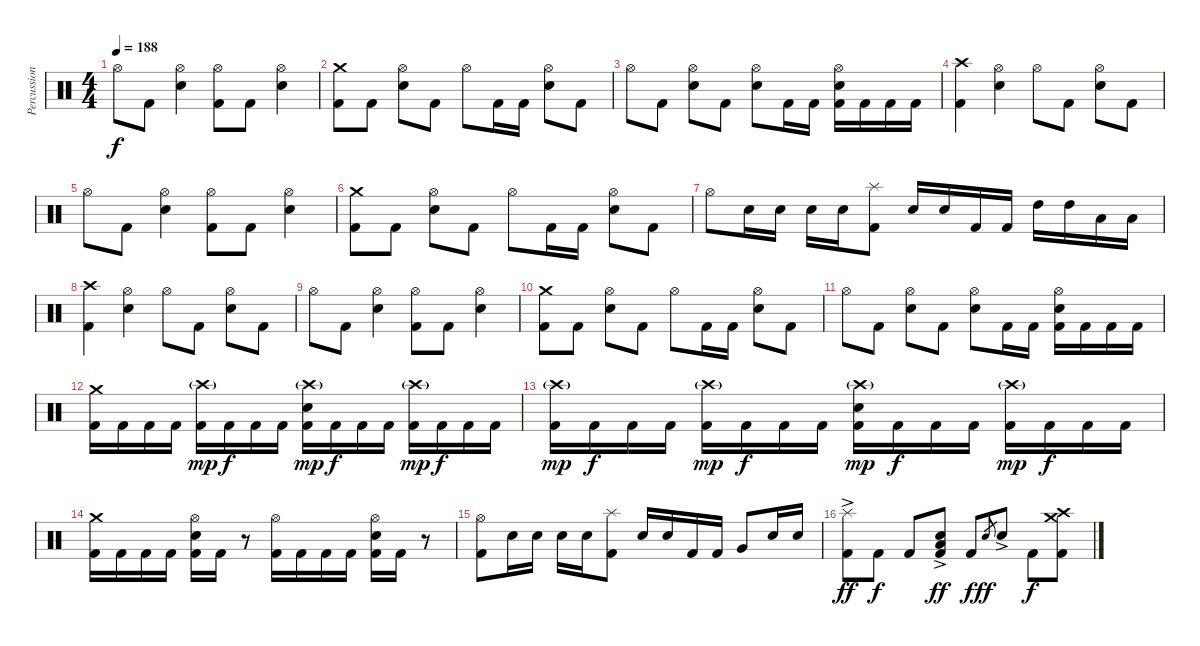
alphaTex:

\track ("Percussion" "Percussion") {instrument percussion}
\staff {score}
\articulation defaults
\ts (4 4)
\tempo 188
\clef neutral
\ks c "Hi-Hat (open)".8{dy f} "Kick (hit) 2".8
("Hi-Hat (open)" "Electric Snare (hit)").4 ("Hi-Hat (open)" "Kick (hit) 2").8 "Kick (hit) 2".8 ("Hi-Hat (open)" "Electric Snare (hit)").4 |
("Crash medium (hit)" "Kick (hit) 2").8 "Kick (hit) 2".8 ("Hi-Hat (open)" "Electric Snare (hit)").8 "Kick (hit) 2".8 "Hi-Hat (open)".8 "Kick (hit) 2".16 "Kick (hit) 2".16 ("Hi-Hat (open)" "Electric Snare (hit)").8 "Kick (hit) 2".8 |
"Hi-Hat (open)".8 "Kick (hit) 2".8 ("Hi-Hat (open)" "Electric Snare (hit)").8 "Kick (hit) 2".8 ("Hi-Hat (open)" "Electric Snare (hit)").8 "Kick (hit) 2".16 "Kick (hit) 2".16 ("Hi-Hat (open)" "Electric Snare (hit)" "Kick (hit) 2").16 "Kick (hit) 2".16 "Kick (hit) 2".16 "Kick (hit) 2".16 |
("Crash high (hit)" "Kick (hit) 2").4 ("Hi-Hat (open)" "Electric Snare (hit)").4 "Hi-Hat (open)".8 "Kick (hit) 2".8 ("Hi-Hat (open)" "Electric Snare (hit)").8 "Kick (hit) 2".8 |
"Hi-Hat (open)".8 "Kick (hit) 2".8 ("Hi-Hat (open)" "Electric Snare (hit)").4 ("Hi-Hat (open)" "Kick (hit) 2").8 "Kick (hit) 2".8 ("Hi-Hat (open)" "Electric Snare (hit)").4 |
("Crash medium (hit)" "Kick (hit) 2").8 "Kick (hit) 2".8 ("Hi-Hat (open)" "Electric Snare (hit)").8 "Kick (hit) 2".8 "Hi-Hat (open)".8 "Kick (hit) 2".16 "Kick (hit) 2".16 ("Hi-Hat (open)" "Electric Snare (hit)").8 "Kick (hit) 2".8 |
"Hi-Hat (open)".8 "Electric Snare (hit)".16 "Electric Snare (hit)".16 "Electric Snare (hit)".16 "Electric Snare (hit)".16 ("Splash (hit)" "Kick (hit) 2").8 "Electric Snare (hit)".16 "Electric Snare (hit)".16 "Kick (hit) 2".16 "Kick (hit) 2".16 "High Tom (hit)".16 "High Tom (hit)".16 "Low Tom (hit)".16 "Low Tom (hit)".16 |
("Crash high (hit)" "Kick (hit) 2").4 ("Hi-Hat (open)" "Electric Snare (hit)").4 "Hi-Hat (open)".8 "Kick (hit) 2".8 ("Hi-Hat (open)" "Electric Snare (hit)").8 "Kick (hit) 2".8 |
"Hi-Hat (open)".8 "Kick (hit) 2".8 ("Hi-Hat (open)" "Electric Snare (hit)").4 ("Hi-Hat (open)" "Kick (hit) 2").8 "Kick (hit) 2".8 ("Hi-Hat (open)" "Electric Snare (hit)").4 |
("Crash medium (hit)" "Kick (hit) 2").8 "Kick (hit) 2".8 ("Hi-Hat (open)" "Electric Snare (hit)").8 "Kick (hit) 2".8 "Hi-Hat (open)".8 "Kick (hit) 2".16 "Kick (hit) 2".16 ("Hi-Hat (open)" "Electric Snare (hit)").8 "Kick (hit) 2".8 |
"Hi-Hat (open)".8 "Kick (hit) 2".8 ("Hi-Hat (open)" "Electric Snare (hit)").8 "Kick (hit) 2".8 ("Hi-Hat (open)" "Electric Snare (hit)").8 "Kick (hit) 2".16 "Kick (hit) 2".16 ("Hi-Hat (open)" "Electric Snare (hit)" "Kick (hit) 2").16 "Kick (hit) 2".16 "Kick (hit) 2".16 "Kick (hit) 2".16 |
("Crash medium (hit)" "Kick (hit) 2").16 "Kick (hit) 2".16 "Kick (hit) 2".16 "Kick (hit) 2".16 ("Crash high (hit)"{g} "Kick (hit) 2").16{dy mp} "Kick (hit) 2".16{dy f} "Kick (hit) 2".16 "Kick (hit) 2".16 ("Crash high (hit)"{g} "Electric Snare (hit)" "Kick (hit) 2").16{dy mp} "Kick (hit) 2".16{dy f} "Kick (hit) 2".16 "Kick (hit) 2".16 ("Crash high (hit)"{g} "Kick (hit) 2").16{dy mp} "Kick (hit) 2".16{dy f} "Kick (hit) 2".16 "Kick (hit) 2".16 |
("Crash high (hit)"{g} "Kick (hit) 2").16{dy mp} "Kick (hit) 2".16{dy f} "Kick (hit) 2".16 "Kick (hit) 2".16 ("Crash high (hit)"{g} "Kick (hit) 2").16{dy mp} "Kick (hit) 2".16{dy f} "Kick (hit) 2".16 "Kick (hit) 2".16 ("Crash high (hit)"{g} "Electric Snare (hit)" "Kick (hit) 2").16{dy mp} "Kick (hit) 2".16{dy f} "Kick (hit) 2".16 "Kick (hit) 2".16 ("Crash high (hit)"{g} "Kick (hit) 2").16{dy mp} "Kick (hit) 2".16{dy f} "Kick (hit) 2".16 "Kick (hit) 2".16 |
("Crash medium (hit)" "Kick (hit) 2").16 "Kick (hit) 2".16 "Kick (hit) 2".16 "Kick (hit) 2".16 ("Hi-Hat (open)" "Electric Snare (hit)" "Kick (hit) 2").16 "Kick (hit) 2".16 r.8 ("Hi-Hat (open)" "Kick (hit) 2").16 "Kick (hit) 2".16 "Kick (hit) 2".16 "Kick (hit) 2".16 ("Hi-Hat (open)" "Electric Snare (hit)" "Kick (hit) 2").16 "Kick (hit) 2".16 r.8 |
("Hi-Hat (open)" "Kick (hit) 2").8 "Electric Snare (hit)".16 "Electric Snare (hit)".16 "Electric Snare (hit)".16 "Electric Snare (hit)".16 ("Splash (hit)" "Kick (hit) 2").8 "Electric Snare (hit)".16 "Electric Snare (hit)".16 "Kick (hit) 2".16 "Kick (hit) 2".16 "Very Low Tom (hit)".8 "Electric Snare (hit)".16 "Electric Snare (hit)".16 |
("Splash (hit)" "Kick (hit) 2"{ac}).8{dy ff} "Kick (hit) 2".8{dy f} "Kick (hit) 2".8 ("Low Floor Tom (hit)"{ac} "Electric Snare (hit)"{ac} "Kick (hit) 2").8{dy ff} "Kick (hit) 2".8{dy f} "Electric Snare (hit)".8{gr dy ff} "Electric Snare (hit)"{ac}.8 "Kick (hit) 2".8{dy f} ("Crash high (hit)" "Crash medium (hit)" "Kick (hit) 2").8
